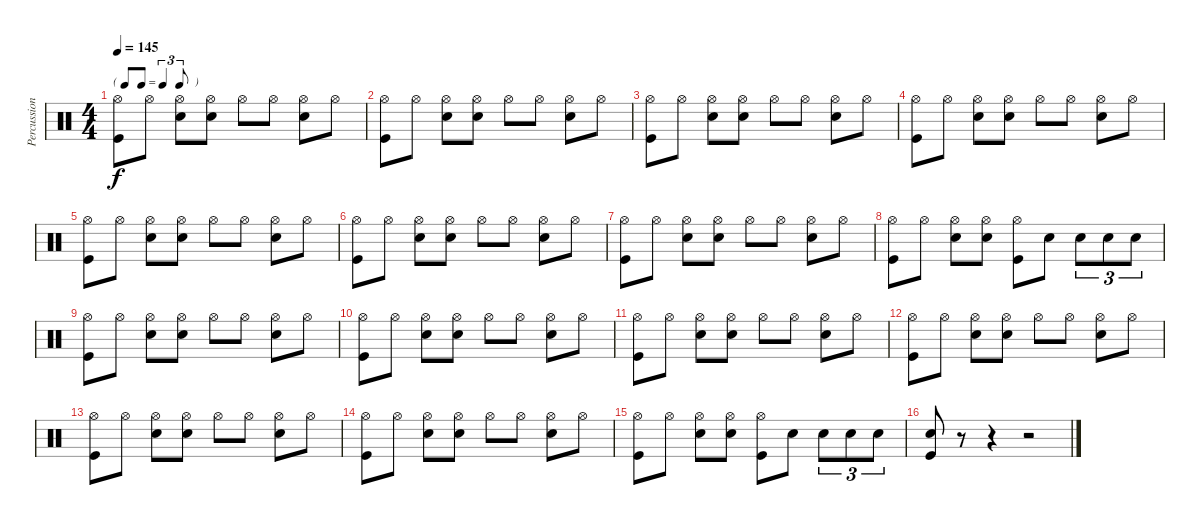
\track ("Percussion" "Percussion") {instrument percussion}
\staff {score}
\articulation defaults
\ts (4 4)
\tf triplet8th
\tempo 145
\clef neutral
\ks c
("Hi-Hat (open)" "Kick (hit)").8{dy f} "Hi-Hat (open)".8 ("Hi-Hat (open)" "Snare (hit) 2").8 ("Hi-Hat (open)" "Snare (hit) 2").8 "Hi-Hat (open)".8 "Hi-Hat (open)".8 ("Hi-Hat (open)" "Snare (hit) 2").8 "Hi-Hat (open)".8 |
("Hi-Hat (open)" "Kick (hit)").8 "Hi-Hat (open)".8 ("Hi-Hat (open)" "Snare (hit) 2").8 ("Hi-Hat (open)" "Snare (hit) 2").8 "Hi-Hat (open)".8 "Hi-Hat (open)".8 ("Hi-Hat (open)" "Snare (hit) 2").8 "Hi-Hat (open)".8 |
("Hi-Hat (open)" "Kick (hit)").8 "Hi-Hat (open)".8 ("Hi-Hat (open)" "Snare (hit) 2").8 ("Hi-Hat (open)" "Snare (hit) 2").8 "Hi-Hat (open)".8 "Hi-Hat (open)".8 ("Hi-Hat (open)" "Snare (hit) 2").8 "Hi-Hat (open)".8 |
("Hi-Hat (open)" "Kick (hit)").8 "Hi-Hat (open)".8 ("Hi-Hat (open)" "Snare (hit) 2").8 ("Hi-Hat (open)" "Snare (hit) 2").8 "Hi-Hat (open)".8 "Hi-Hat (open)".8 ("Hi-Hat (open)" "Snare (hit) 2").8 "Hi-Hat (open)".8 |
("Hi-Hat (open)" "Kick (hit)").8 "Hi-Hat (open)".8 ("Hi-Hat (open)" "Snare (hit) 2").8 ("Hi-Hat (open)" "Snare (hit) 2").8 "Hi-Hat (open)".8 "Hi-Hat (open)".8 ("Hi-Hat (open)" "Snare (hit) 2").8 "Hi-Hat (open)".8 |
("Hi-Hat (open)" "Kick (hit)").8 "Hi-Hat (open)".8 ("Hi-Hat (open)" "Snare (hit) 2").8 ("Hi-Hat (open)" "Snare (hit) 2").8 "Hi-Hat (open)".8 "Hi-Hat (open)".8 ("Hi-Hat (open)" "Snare (hit) 2").8 "Hi-Hat (open)".8 |
("Hi-Hat (open)" "Kick (hit)").8 "Hi-Hat (open)".8 ("Hi-Hat (open)" "Snare (hit) 2").8 ("Hi-Hat (open)" "Snare (hit) 2").8 "Hi-Hat (open)".8 "Hi-Hat (open)".8 ("Hi-Hat (open)" "Snare (hit) 2").8 "Hi-Hat (open)".8 |
("Hi-Hat (open)" "Kick (hit)").8 "Hi-Hat (open)".8 ("Hi-Hat (open)" "Snare (hit) 2").8 ("Hi-Hat (open)" "Snare (hit) 2").8 ("Hi-Hat (open)" "Kick (hit)").8 "Snare (hit) 2".8 "Snare (hit) 2".8{tu (3 2)} "Snare (hit) 2".8{tu (3 2)} "Snare (hit) 2".8{tu (3 2)} |
("Hi-Hat (open)" "Kick (hit)").8 "Hi-Hat (open)".8 ("Hi-Hat (open)" "Snare (hit) 2").8 ("Hi-Hat (open)" "Snare (hit) 2").8 "Hi-Hat (open)".8 "Hi-Hat (open)".8 ("Hi-Hat (open)" "Snare (hit) 2").8 "Hi-Hat (open)".8 |
("Hi-Hat (open)" "Kick (hit)").8 "Hi-Hat (open)".8 ("Hi-Hat (open)" "Snare (hit) 2").8 ("Hi-Hat (open)" "Snare (hit) 2").8 "Hi-Hat (open)".8 "Hi-Hat (open)".8 ("Hi-Hat (open)" "Snare (hit) 2").8 "Hi-Hat (open)".8 |
("Hi-Hat (open)" "Kick (hit)").8 "Hi-Hat (open)".8 ("Hi-Hat (open)" "Snare (hit) 2").8 ("Hi-Hat (open)" "Snare (hit) 2").8 "Hi-Hat (open)".8 "Hi-Hat (open)".8 ("Hi-Hat (open)" "Snare (hit) 2").8 "Hi-Hat (open)".8 |
("Hi-Hat (open)" "Kick (hit)").8 "Hi-Hat (open)".8 ("Hi-Hat (open)" "Snare (hit) 2").8 ("Hi-Hat (open)" "Snare (hit) 2").8 "Hi-Hat (open)".8 "Hi-Hat (open)".8 ("Hi-Hat (open)" "Snare (hit) 2").8 "Hi-Hat (open)".8 |
("Hi-Hat (open)" "Kick (hit)").8 "Hi-Hat (open)".8 ("Hi-Hat (open)" "Snare (hit) 2").8 ("Hi-Hat (open)" "Snare (hit) 2").8 "Hi-Hat (open)".8 "Hi-Hat (open)".8 ("Hi-Hat (open)" "Snare (hit) 2").8 "Hi-Hat (open)".8 |
("Hi-Hat (open)" "Kick (hit)").8 "Hi-Hat (open)".8 ("Hi-Hat (open)" "Snare (hit) 2").8 ("Hi-Hat (open)" "Snare (hit) 2").8 "Hi-Hat (open)".8 "Hi-Hat (open)".8 ("Hi-Hat (open)" "Snare (hit) 2").8 "Hi-Hat (open)".8 |
("Hi-Hat (open)" "Kick (hit)").8 "Hi-Hat (open)".8 ("Hi-Hat (open)" "Snare (hit) 2").8 ("Hi-Hat (open)" "Snare (hit) 2").8 ("Hi-Hat (open)" "Kick (hit)").8 "Snare (hit) 2".8 "Snare (hit) 2".8{tu (3 2)} "Snare (hit) 2".8{tu (3 2)} "Snare (hit) 2".8{tu (3 2)} |
("Snare (hit) 2" "Kick (hit)").8 r.8 r.4 r.2
